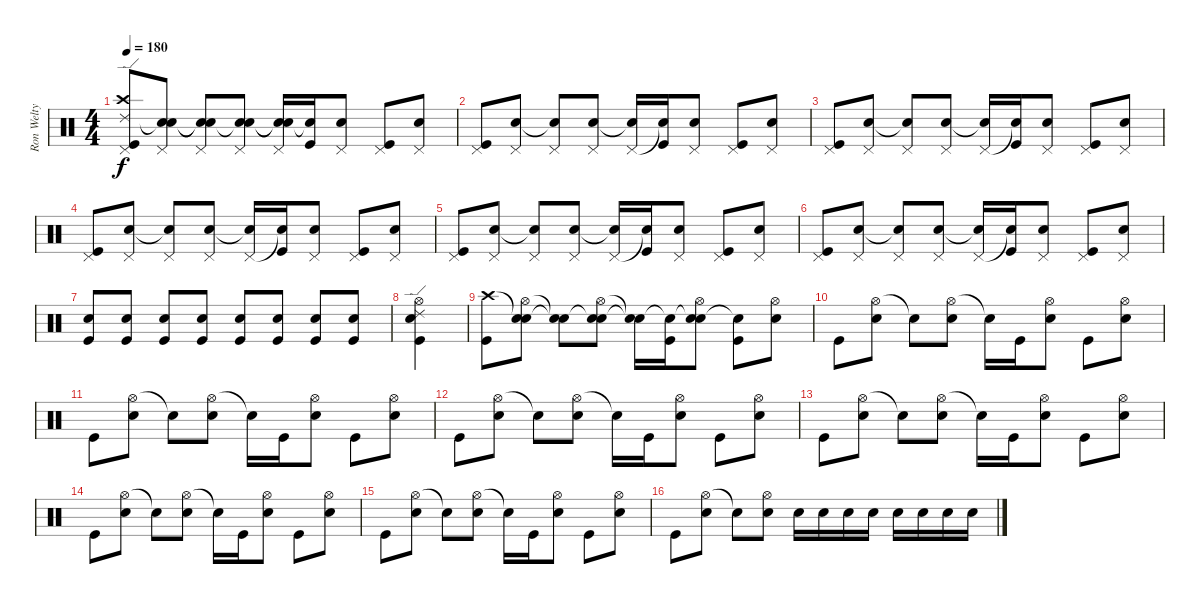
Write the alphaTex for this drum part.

\track ("Ron Welty" "Ron Welty") {instrument percussion}
\staff {score}
\articulation defaults
\ts (4 4)
\tempo 180
\clef neutral
\ks c
("Ride (edge) 2" "Crash high (hit)" "Pedal Hi-Hat (hit)" "Kick (hit)").8{dy f} ("Snare (hit)"{t} "Pedal Hi-Hat (hit)" "Electric Snare (hit)").8 ("Snare (hit)"{t} "Pedal Hi-Hat (hit)" "Snare (hit)"{t}).8 ("Snare (hit)"{t} "Pedal Hi-Hat (hit)" "Electric Snare (hit)").8 ("Snare (hit)"{t} "Pedal Hi-Hat (hit)" "Snare (hit)"{t}).16 ("Snare (hit)"{t} "Kick (hit)").16 ("Pedal Hi-Hat (hit)" "Electric Snare (hit)").8 ("Pedal Hi-Hat (hit)" "Kick (hit)").8 ("Pedal Hi-Hat (hit)" "Electric Snare (hit)").8 |
("Pedal Hi-Hat (hit)" "Kick (hit)").8 ("Pedal Hi-Hat (hit)" "Electric Snare (hit)").8 ("Pedal Hi-Hat (hit)" "Snare (hit)"{t}).8 ("Pedal Hi-Hat (hit)" "Electric Snare (hit)").8 ("Pedal Hi-Hat (hit)" "Snare (hit)"{t}).16 ("Snare (hit)"{t} "Kick (hit)").16 ("Pedal Hi-Hat (hit)" "Electric Snare (hit)").8 ("Pedal Hi-Hat (hit)" "Kick (hit)").8 ("Pedal Hi-Hat (hit)" "Electric Snare (hit)").8 |
("Pedal Hi-Hat (hit)" "Kick (hit)").8 ("Pedal Hi-Hat (hit)" "Electric Snare (hit)").8 ("Pedal Hi-Hat (hit)" "Snare (hit)"{t}).8 ("Pedal Hi-Hat (hit)" "Electric Snare (hit)").8 ("Pedal Hi-Hat (hit)" "Snare (hit)"{t}).16 ("Snare (hit)"{t} "Kick (hit)").16 ("Pedal Hi-Hat (hit)" "Electric Snare (hit)").8 ("Pedal Hi-Hat (hit)" "Kick (hit)").8 ("Pedal Hi-Hat (hit)" "Electric Snare (hit)").8 |
("Pedal Hi-Hat (hit)" "Kick (hit)").8 ("Pedal Hi-Hat (hit)" "Electric Snare (hit)").8 ("Pedal Hi-Hat (hit)" "Snare (hit)"{t}).8 ("Pedal Hi-Hat (hit)" "Electric Snare (hit)").8 ("Pedal Hi-Hat (hit)" "Snare (hit)"{t}).16 ("Snare (hit)"{t} "Kick (hit)").16 ("Pedal Hi-Hat (hit)" "Electric Snare (hit)").8 ("Pedal Hi-Hat (hit)" "Kick (hit)").8 ("Pedal Hi-Hat (hit)" "Electric Snare (hit)").8 |
("Pedal Hi-Hat (hit)" "Kick (hit)").8 ("Pedal Hi-Hat (hit)" "Electric Snare (hit)").8 ("Pedal Hi-Hat (hit)" "Snare (hit)"{t}).8 ("Pedal Hi-Hat (hit)" "Electric Snare (hit)").8 ("Pedal Hi-Hat (hit)" "Snare (hit)"{t}).16 ("Snare (hit)"{t} "Kick (hit)").16 ("Pedal Hi-Hat (hit)" "Electric Snare (hit)").8 ("Pedal Hi-Hat (hit)" "Kick (hit)").8 ("Pedal Hi-Hat (hit)" "Electric Snare (hit)").8 |
("Pedal Hi-Hat (hit)" "Kick (hit)").8 ("Pedal Hi-Hat (hit)" "Electric Snare (hit)").8 ("Pedal Hi-Hat (hit)" "Snare (hit)"{t}).8 ("Pedal Hi-Hat (hit)" "Electric Snare (hit)").8 ("Pedal Hi-Hat (hit)" "Snare (hit)"{t}).16 ("Snare (hit)"{t} "Kick (hit)").16 ("Pedal Hi-Hat (hit)" "Electric Snare (hit)").8 ("Pedal Hi-Hat (hit)" "Kick (hit)").8 ("Pedal Hi-Hat (hit)" "Electric Snare (hit)").8 |
("Kick (hit)" "Electric Snare (hit)").8 ("Kick (hit)" "Electric Snare (hit)").8 ("Kick (hit)" "Electric Snare (hit)").8 ("Kick (hit)" "Electric Snare (hit)").8 ("Kick (hit)" "Electric Snare (hit)").8 ("Kick (hit)" "Electric Snare (hit)").8 ("Kick (hit)" "Electric Snare (hit)").8 ("Kick (hit)" "Electric Snare (hit)").8 |
("Kick (hit)" "Ride (edge) 2" "Hi-Hat (open)" "Electric Snare (hit)").4 |
("Crash high (hit)" "Kick (hit)").8 ("Snare (hit)"{t} "Hi-Hat (open)" "Electric Snare (hit)").8 ("Snare (hit)"{t} "Snare (hit)"{t}).8 ("Snare (hit)"{t} "Hi-Hat (open)" "Electric Snare (hit)").8 ("Snare (hit)"{t} "Snare (hit)"{t}).16 ("Snare (hit)"{t} "Kick (hit)").16 ("Snare (hit)"{t} "Hi-Hat (open)" "Electric Snare (hit)").8 ("Snare (hit)"{t} "Kick (hit)").8 ("Hi-Hat (open)" "Electric Snare (hit)").8 |
"Kick (hit)".8 ("Hi-Hat (open)" "Electric Snare (hit)").8 "Snare (hit)"{t}.8 ("Hi-Hat (open)" "Electric Snare (hit)").8 "Snare (hit)"{t}.16 "Kick (hit)".16 ("Hi-Hat (open)" "Electric Snare (hit)").8 "Kick (hit)".8 ("Hi-Hat (open)" "Electric Snare (hit)").8 |
"Kick (hit)".8 ("Hi-Hat (open)" "Electric Snare (hit)").8 "Snare (hit)"{t}.8 ("Hi-Hat (open)" "Electric Snare (hit)").8 "Snare (hit)"{t}.16 "Kick (hit)".16 ("Hi-Hat (open)" "Electric Snare (hit)").8 "Kick (hit)".8 ("Hi-Hat (open)" "Electric Snare (hit)").8 |
"Kick (hit)".8 ("Hi-Hat (open)" "Electric Snare (hit)").8 "Snare (hit)"{t}.8 ("Hi-Hat (open)" "Electric Snare (hit)").8 "Snare (hit)"{t}.16 "Kick (hit)".16 ("Hi-Hat (open)" "Electric Snare (hit)").8 "Kick (hit)".8 ("Hi-Hat (open)" "Electric Snare (hit)").8 |
"Kick (hit)".8 ("Hi-Hat (open)" "Electric Snare (hit)").8 "Snare (hit)"{t}.8 ("Hi-Hat (open)" "Electric Snare (hit)").8 "Snare (hit)"{t}.16 "Kick (hit)".16 ("Hi-Hat (open)" "Electric Snare (hit)").8 "Kick (hit)".8 ("Hi-Hat (open)" "Electric Snare (hit)").8 |
"Kick (hit)".8 ("Hi-Hat (open)" "Electric Snare (hit)").8 "Snare (hit)"{t}.8 ("Hi-Hat (open)" "Electric Snare (hit)").8 "Snare (hit)"{t}.16 "Kick (hit)".16 ("Hi-Hat (open)" "Electric Snare (hit)").8 "Kick (hit)".8 ("Hi-Hat (open)" "Electric Snare (hit)").8 |
"Kick (hit)".8 ("Hi-Hat (open)" "Electric Snare (hit)").8 "Snare (hit)"{t}.8 ("Hi-Hat (open)" "Electric Snare (hit)").8 "Snare (hit)"{t}.16 "Kick (hit)".16 ("Hi-Hat (open)" "Electric Snare (hit)").8 "Kick (hit)".8 ("Hi-Hat (open)" "Electric Snare (hit)").8 |
"Kick (hit)".8 ("Hi-Hat (open)" "Electric Snare (hit)").8 "Snare (hit)"{t}.8 ("Hi-Hat (open)" "Electric Snare (hit)").8 "Electric Snare (hit)".16 "Electric Snare (hit)".16 "Electric Snare (hit)".16 "Electric Snare (hit)".16 "Electric Snare (hit)".16 "Electric Snare (hit)".16 "Electric Snare (hit)".16 "Electric Snare (hit)".16
